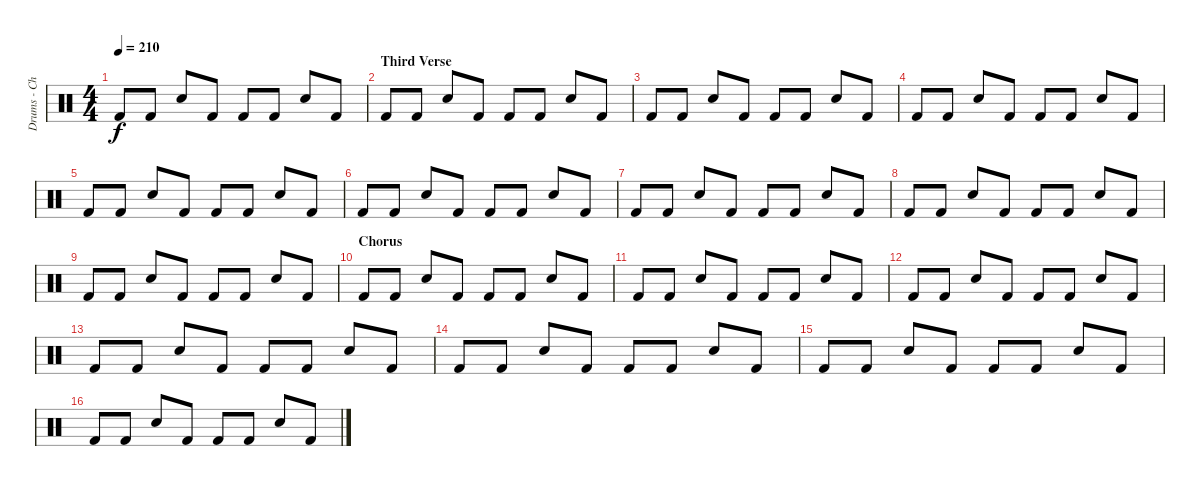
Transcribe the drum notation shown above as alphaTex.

\track ("Drums - Chad Smith" "Drums - Ch") {instrument percussion}
\staff {score}
\articulation defaults
\ts (4 4)
\tempo 210
\clef neutral
\ks c "Kick (hit) 2".8{dy f} "Kick (hit) 2".8 "Electric Snare (hit)".8 "Kick (hit) 2".8 "Kick (hit) 2".8 "Kick (hit) 2".8 "Electric Snare (hit)".8 "Kick (hit) 2".8
|
\section ("" "Third Verse")
"Kick (hit) 2".8 "Kick (hit) 2".8 "Electric Snare (hit)".8 "Kick (hit) 2".8 "Kick (hit) 2".8 "Kick (hit) 2".8 "Electric Snare (hit)".8 "Kick (hit) 2".8 |
"Kick (hit) 2".8 "Kick (hit) 2".8 "Electric Snare (hit)".8 "Kick (hit) 2".8 "Kick (hit) 2".8 "Kick (hit) 2".8 "Electric Snare (hit)".8 "Kick (hit) 2".8 |
"Kick (hit) 2".8 "Kick (hit) 2".8 "Electric Snare (hit)".8 "Kick (hit) 2".8 "Kick (hit) 2".8 "Kick (hit) 2".8 "Electric Snare (hit)".8 "Kick (hit) 2".8 |
"Kick (hit) 2".8 "Kick (hit) 2".8 "Electric Snare (hit)".8 "Kick (hit) 2".8 "Kick (hit) 2".8 "Kick (hit) 2".8 "Electric Snare (hit)".8 "Kick (hit) 2".8 |
"Kick (hit) 2".8 "Kick (hit) 2".8 "Electric Snare (hit)".8 "Kick (hit) 2".8 "Kick (hit) 2".8 "Kick (hit) 2".8 "Electric Snare (hit)".8 "Kick (hit) 2".8 |
"Kick (hit) 2".8 "Kick (hit) 2".8 "Electric Snare (hit)".8 "Kick (hit) 2".8 "Kick (hit) 2".8 "Kick (hit) 2".8 "Electric Snare (hit)".8 "Kick (hit) 2".8 |
"Kick (hit) 2".8 "Kick (hit) 2".8 "Electric Snare (hit)".8 "Kick (hit) 2".8 "Kick (hit) 2".8 "Kick (hit) 2".8 "Electric Snare (hit)".8 "Kick (hit) 2".8 |
"Kick (hit) 2".8 "Kick (hit) 2".8 "Electric Snare (hit)".8 "Kick (hit) 2".8 "Kick (hit) 2".8 "Kick (hit) 2".8 "Electric Snare (hit)".8 "Kick (hit) 2".8 |
\section ("" "Chorus")
"Kick (hit) 2".8 "Kick (hit) 2".8 "Electric Snare (hit)".8 "Kick (hit) 2".8 "Kick (hit) 2".8 "Kick (hit) 2".8 "Electric Snare (hit)".8 "Kick (hit) 2".8 |
"Kick (hit) 2".8 "Kick (hit) 2".8 "Electric Snare (hit)".8 "Kick (hit) 2".8 "Kick (hit) 2".8 "Kick (hit) 2".8 "Electric Snare (hit)".8 "Kick (hit) 2".8 |
"Kick (hit) 2".8 "Kick (hit) 2".8 "Electric Snare (hit)".8 "Kick (hit) 2".8 "Kick (hit) 2".8 "Kick (hit) 2".8 "Electric Snare (hit)".8 "Kick (hit) 2".8 |
"Kick (hit) 2".8 "Kick (hit) 2".8 "Electric Snare (hit)".8 "Kick (hit) 2".8 "Kick (hit) 2".8 "Kick (hit) 2".8 "Electric Snare (hit)".8 "Kick (hit) 2".8 |
"Kick (hit) 2".8 "Kick (hit) 2".8 "Electric Snare (hit)".8 "Kick (hit) 2".8 "Kick (hit) 2".8 "Kick (hit) 2".8 "Electric Snare (hit)".8 "Kick (hit) 2".8 |
"Kick (hit) 2".8 "Kick (hit) 2".8 "Electric Snare (hit)".8 "Kick (hit) 2".8 "Kick (hit) 2".8 "Kick (hit) 2".8 "Electric Snare (hit)".8 "Kick (hit) 2".8 |
"Kick (hit) 2".8 "Kick (hit) 2".8 "Electric Snare (hit)".8 "Kick (hit) 2".8 "Kick (hit) 2".8 "Kick (hit) 2".8 "Electric Snare (hit)".8 "Kick (hit) 2".8
